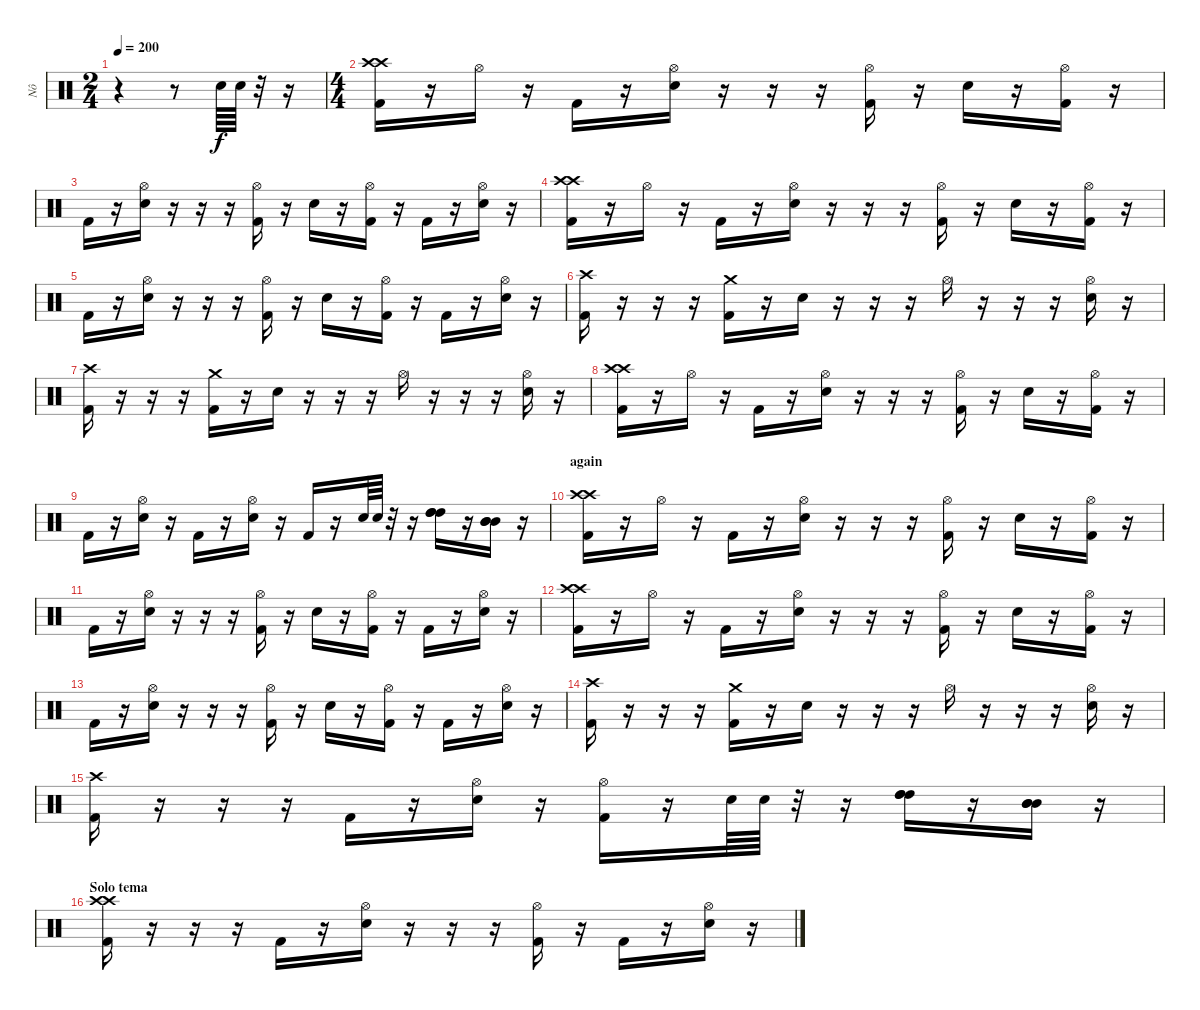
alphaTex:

\track ("Nô" "Nô") {instrument percussion}
\staff {score}
\articulation defaults
\ts (2 4)
\tempo 200
\clef neutral
\ks c
r.4{dy f} r.8 "Electric Snare (hit)".64 "Electric Snare (hit)".64 r.32 r.16 |
\ts (4 4)
("Crash high (hit)" "Crash high (hit)" "Kick (hit) 2").16 r.16 "Hi-Hat (open)".16 r.16 "Kick (hit) 2".16 r.16 ("Hi-Hat (open)" "Electric Snare (hit)").16 r.16 r.16 r.16 ("Hi-Hat (open)" "Kick (hit) 2").16 r.16 "Electric Snare (hit)".16 r.16 ("Hi-Hat (open)" "Kick (hit) 2").16 r.16 |
"Kick (hit) 2".16 r.16 ("Hi-Hat (open)" "Electric Snare (hit)").16 r.16 r.16 r.16 ("Hi-Hat (open)" "Kick (hit) 2").16 r.16 "Electric Snare (hit)".16 r.16 ("Hi-Hat (open)" "Kick (hit) 2").16 r.16 "Kick (hit) 2".16 r.16 ("Hi-Hat (open)" "Electric Snare (hit)").16 r.16 |
("Crash high (hit)" "Crash high (hit)" "Kick (hit) 2").16 r.16 "Hi-Hat (open)".16 r.16 "Kick (hit) 2".16 r.16 ("Hi-Hat (open)" "Electric Snare (hit)").16 r.16 r.16 r.16 ("Hi-Hat (open)" "Kick (hit) 2").16 r.16 "Electric Snare (hit)".16 r.16 ("Hi-Hat (open)" "Kick (hit) 2").16 r.16 |
"Kick (hit) 2".16 r.16 ("Hi-Hat (open)" "Electric Snare (hit)").16 r.16 r.16 r.16 ("Hi-Hat (open)" "Kick (hit) 2").16 r.16 "Electric Snare (hit)".16 r.16 ("Hi-Hat (open)" "Kick (hit) 2").16 r.16 "Kick (hit) 2".16 r.16 ("Hi-Hat (open)" "Electric Snare (hit)").16 r.16 |
("Crash high (hit)" "Kick (hit) 2").16 r.16 r.16 r.16 ("Crash medium (hit)" "Kick (hit) 2").16 r.16 "Electric Snare (hit)".16 r.16 r.16 r.16 "Hi-Hat (open)".16 r.16 r.16 r.16 ("Hi-Hat (open)" "Electric Snare (hit)").16 r.16 |
("Crash high (hit)" "Kick (hit) 2").16 r.16 r.16 r.16 ("Crash medium (hit)" "Kick (hit) 2").16 r.16 "Electric Snare (hit)".16 r.16 r.16 r.16 "Hi-Hat (open)".16 r.16 r.16 r.16 ("Hi-Hat (open)" "Electric Snare (hit)").16 r.16 |
("Crash high (hit)" "Crash high (hit)" "Kick (hit) 2").16 r.16 "Hi-Hat (open)".16 r.16 "Kick (hit) 2".16 r.16 ("Hi-Hat (open)" "Electric Snare (hit)").16 r.16 r.16 r.16 ("Hi-Hat (open)" "Kick (hit) 2").16 r.16 "Electric Snare (hit)".16 r.16 ("Hi-Hat (open)" "Kick (hit) 2").16 r.16 |
"Kick (hit) 2".16 r.16 ("Hi-Hat (open)" "Electric Snare (hit)").16 r.16 "Kick (hit) 2".16 r.16 ("Hi-Hat (open)" "Electric Snare (hit)").16 r.16 "Kick (hit) 2".16 r.16 "Electric Snare (hit)".64 "Electric Snare (hit)".64 r.32 r.16 ("High Tom (hit)" "High Tom (hit)" "High Tom (hit)").16 r.16 ("Mid Tom (hit)" "Mid Tom (hit)" "Mid Tom (hit)").16 r.16 |
\section ("" "again")
("Crash high (hit)" "Crash high (hit)" "Kick (hit) 2").16 r.16 "Hi-Hat (open)".16 r.16 "Kick (hit) 2".16 r.16 ("Hi-Hat (open)" "Electric Snare (hit)").16 r.16 r.16 r.16 ("Hi-Hat (open)" "Kick (hit) 2").16 r.16 "Electric Snare (hit)".16 r.16 ("Hi-Hat (open)" "Kick (hit) 2").16 r.16 |
"Kick (hit) 2".16 r.16 ("Hi-Hat (open)" "Electric Snare (hit)").16 r.16 r.16 r.16 ("Hi-Hat (open)" "Kick (hit) 2").16 r.16 "Electric Snare (hit)".16 r.16 ("Hi-Hat (open)" "Kick (hit) 2").16 r.16 "Kick (hit) 2".16 r.16 ("Hi-Hat (open)" "Electric Snare (hit)").16 r.16 |
("Crash high (hit)" "Crash high (hit)" "Kick (hit) 2").16 r.16 "Hi-Hat (open)".16 r.16 "Kick (hit) 2".16 r.16 ("Hi-Hat (open)" "Electric Snare (hit)").16 r.16 r.16 r.16 ("Hi-Hat (open)" "Kick (hit) 2").16 r.16 "Electric Snare (hit)".16 r.16 ("Hi-Hat (open)" "Kick (hit) 2").16 r.16 |
"Kick (hit) 2".16 r.16 ("Hi-Hat (open)" "Electric Snare (hit)").16 r.16 r.16 r.16 ("Hi-Hat (open)" "Kick (hit) 2").16 r.16 "Electric Snare (hit)".16 r.16 ("Hi-Hat (open)" "Kick (hit) 2").16 r.16 "Kick (hit) 2".16 r.16 ("Hi-Hat (open)" "Electric Snare (hit)").16 r.16 |
("Crash high (hit)" "Kick (hit) 2").16 r.16 r.16 r.16 ("Crash medium (hit)" "Kick (hit) 2").16 r.16 "Electric Snare (hit)".16 r.16 r.16 r.16 "Hi-Hat (open)".16 r.16 r.16 r.16 ("Hi-Hat (open)" "Electric Snare (hit)").16 r.16 |
("Crash high (hit)" "Kick (hit) 2").16 r.16 r.16 r.16 "Kick (hit) 2".16 r.16 ("Hi-Hat (open)" "Electric Snare (hit)").16 r.16 ("Hi-Hat (open)" "Kick (hit) 2").16 r.16 "Electric Snare (hit)".64 "Electric Snare (hit)".64 r.32 r.16 ("High Tom (hit)" "High Tom (hit)" "High Tom (hit)").16 r.16 ("Mid Tom (hit)" "Mid Tom (hit)" "Mid Tom (hit)").16 r.16 |
\section ("" "Solo tema")
("Crash high (hit)" "Crash high (hit)" "Kick (hit) 2").16 r.16 r.16 r.16 "Kick (hit) 2".16 r.16 ("Hi-Hat (open)" "Electric Snare (hit)").16 r.16 r.16 r.16 ("Hi-Hat (open)" "Kick (hit) 2").16 r.16 "Kick (hit) 2".16 r.16 ("Hi-Hat (open)" "Electric Snare (hit)").16 r.16
